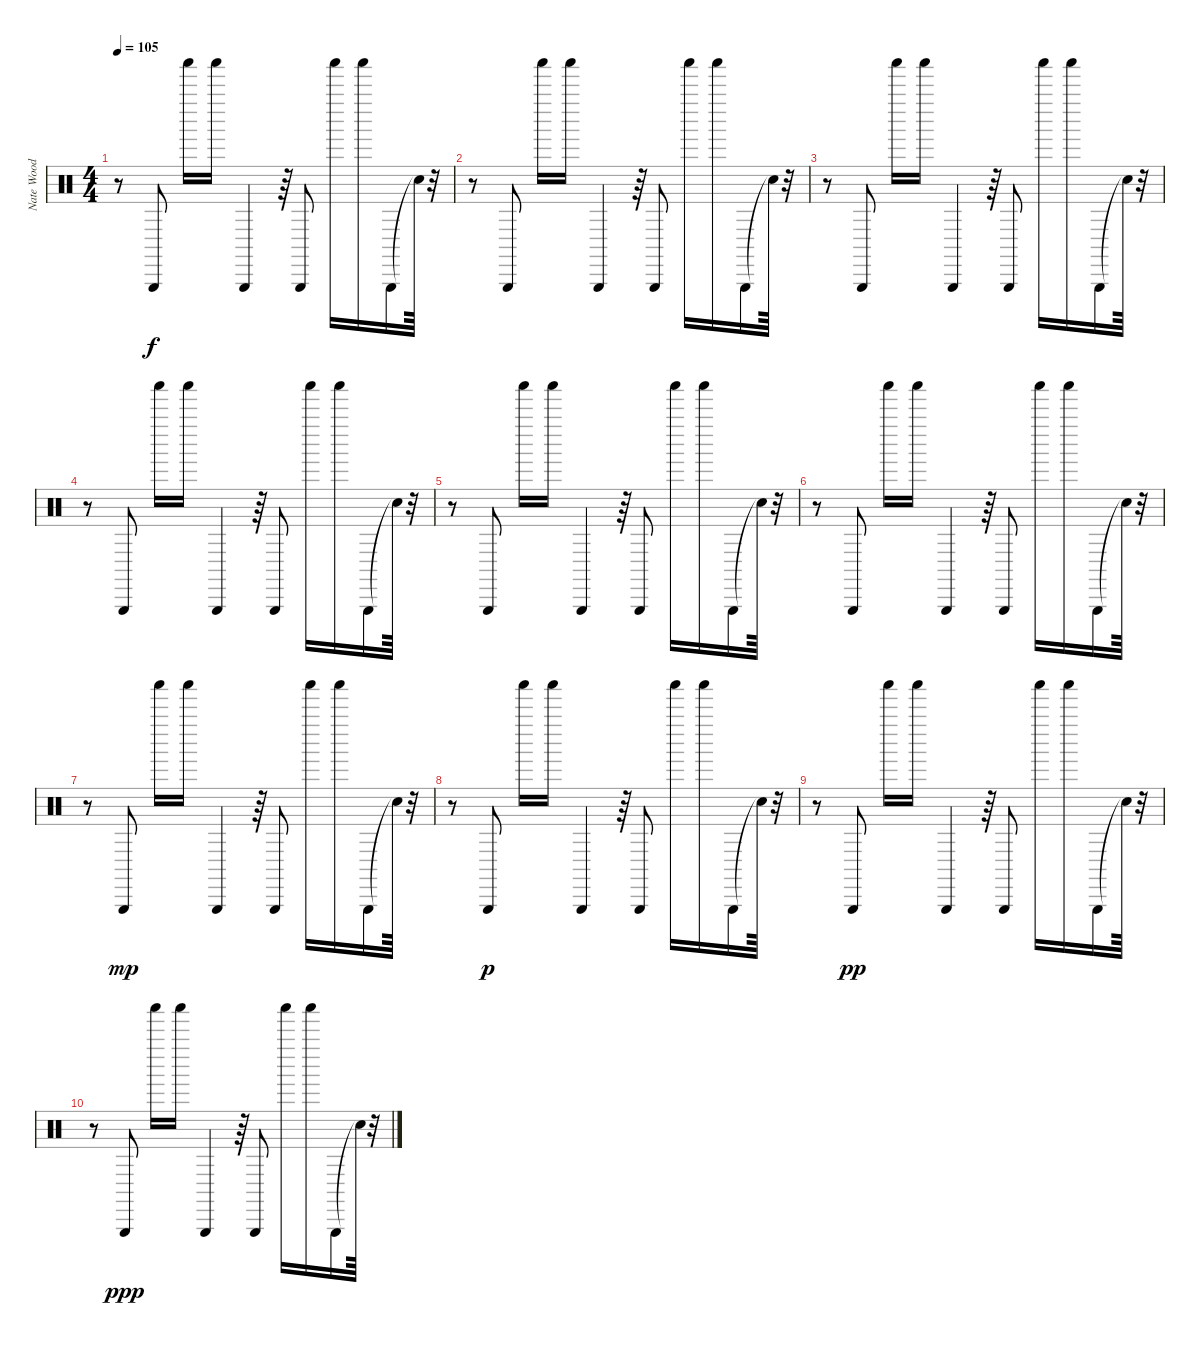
\track ("Nate Wood " "Nate Wood ") {instrument percussion}
\staff {score}
\articulation defaults
\ts (4 4)
\tempo 105
\clef neutral
\ks c
r.8{dy f} "Triangle (hit)".8 "Shaker (hit)".16 "Shaker (hit)".16 "Triangle (hit)".4 r.64 "Triangle (hit)".8 "Shaker (hit)".16 "Shaker (hit)".16 "Triangle (hit)".16 "Snare (hit)"{t}.64 r.32 |
r.8 "Triangle (hit)".8 "Shaker (hit)".16 "Shaker (hit)".16 "Triangle (hit)".4 r.64 "Triangle (hit)".8 "Shaker (hit)".16 "Shaker (hit)".16 "Triangle (hit)".16 "Snare (hit)"{t}.64 r.32 |
r.8 "Triangle (hit)".8 "Shaker (hit)".16 "Shaker (hit)".16 "Triangle (hit)".4 r.64 "Triangle (hit)".8 "Shaker (hit)".16 "Shaker (hit)".16 "Triangle (hit)".16 "Snare (hit)"{t}.64 r.32 |
r.8 "Triangle (hit)".8 "Shaker (hit)".16 "Shaker (hit)".16 "Triangle (hit)".4 r.64 "Triangle (hit)".8 "Shaker (hit)".16 "Shaker (hit)".16 "Triangle (hit)".16 "Snare (hit)"{t}.64 r.32 |
r.8 "Triangle (hit)".8 "Shaker (hit)".16 "Shaker (hit)".16 "Triangle (hit)".4 r.64 "Triangle (hit)".8 "Shaker (hit)".16 "Shaker (hit)".16 "Triangle (hit)".16 "Snare (hit)"{t}.64 r.32 |
r.8 "Triangle (hit)".8 "Shaker (hit)".16 "Shaker (hit)".16 "Triangle (hit)".4 r.64 "Triangle (hit)".8 "Shaker (hit)".16 "Shaker (hit)".16 "Triangle (hit)".16 "Snare (hit)"{t}.64 r.32 |
r.8 "Triangle (hit)".8{dy mp} "Shaker (hit)".16 "Shaker (hit)".16 "Triangle (hit)".4 r.64 "Triangle (hit)".8 "Shaker (hit)".16 "Shaker (hit)".16 "Triangle (hit)".16 "Snare (hit)"{t}.64 r.32 |
r.8 "Triangle (hit)".8{dy p} "Shaker (hit)".16 "Shaker (hit)".16 "Triangle (hit)".4 r.64 "Triangle (hit)".8 "Shaker (hit)".16 "Shaker (hit)".16 "Triangle (hit)".16 "Snare (hit)"{t}.64 r.32 |
r.8 "Triangle (hit)".8{dy pp} "Shaker (hit)".16 "Shaker (hit)".16 "Triangle (hit)".4 r.64 "Triangle (hit)".8 "Shaker (hit)".16 "Shaker (hit)".16 "Triangle (hit)".16 "Snare (hit)"{t}.64 r.32 |
r.8 "Triangle (hit)".8{dy ppp} "Shaker (hit)".16 "Shaker (hit)".16 "Triangle (hit)".4 r.64 "Triangle (hit)".8 "Shaker (hit)".16 "Shaker (hit)".16 "Triangle (hit)".16 "Snare (hit)"{t}.64 r.32
